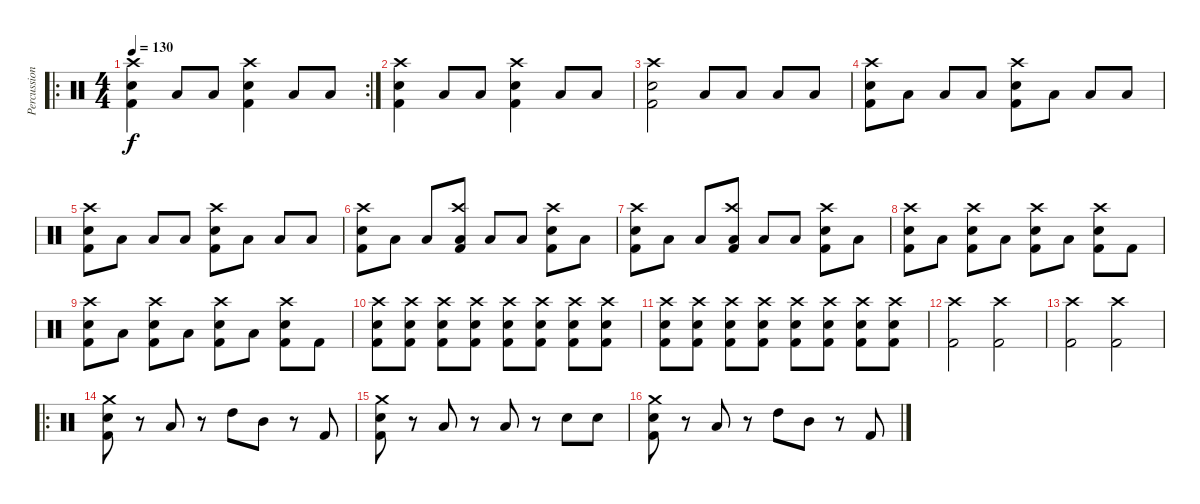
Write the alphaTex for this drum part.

\track ("Percussions" "Percussion") {instrument percussion}
\staff {score}
\articulation defaults
\ro
\rc 2
\ts (4 4)
\tempo 130
\clef neutral
\ks c
("Electric Snare (hit)" "Kick (hit) 2" "Crash high (hit)").4{dy f} "Low Tom (hit)".8 "Low Tom (hit)".8 ("Crash high (hit)" "Kick (hit) 2" "Electric Snare (hit)").4 "Low Tom (hit)".8 "Low Tom (hit)".8 |
("Electric Snare (hit)" "Kick (hit) 2" "Crash high (hit)").4 "Low Tom (hit)".8 "Low Tom (hit)".8 ("Electric Snare (hit)" "Kick (hit) 2" "Crash high (hit)").4 "Low Tom (hit)".8 "Low Tom (hit)".8 |
("Electric Snare (hit)" "Kick (hit) 2" "Crash high (hit)").2 "Low Tom (hit)".8 "Low Tom (hit)".8 "Low Tom (hit)".8 "Low Tom (hit)".8 |
("Electric Snare (hit)" "Kick (hit) 2" "Crash high (hit)").8 "Low Tom (hit)".8 "Low Tom (hit)".8 "Low Tom (hit)".8 ("Crash high (hit)" "Kick (hit) 2" "Electric Snare (hit)").8 "Low Tom (hit)".8 "Low Tom (hit)".8 "Low Tom (hit)".8 |
("Electric Snare (hit)" "Kick (hit) 2" "Crash high (hit)").8 "Low Tom (hit)".8 "Low Tom (hit)".8 "Low Tom (hit)".8 ("Crash high (hit)" "Kick (hit) 2" "Electric Snare (hit)").8 "Low Tom (hit)".8 "Low Tom (hit)".8 "Low Tom (hit)".8 |
("Electric Snare (hit)" "Kick (hit) 2" "Crash high (hit)").8 "Low Tom (hit)".8 "Low Tom (hit)".8 ("Crash high (hit)" "Kick (hit) 2" "Low Tom (hit)").8 "Low Tom (hit)".8 "Low Tom (hit)".8 ("Kick (hit) 2" "Electric Snare (hit)" "Crash high (hit)").8 "Low Tom (hit)".8 |
("Electric Snare (hit)" "Kick (hit) 2" "Crash high (hit)").8 "Low Tom (hit)".8 "Low Tom (hit)".8 ("Crash high (hit)" "Kick (hit) 2" "Low Tom (hit)").8 "Low Tom (hit)".8 "Low Tom (hit)".8 ("Kick (hit) 2" "Electric Snare (hit)" "Crash high (hit)").8 "Low Tom (hit)".8 |
("Crash high (hit)" "Electric Snare (hit)" "Kick (hit) 2").8 "Low Tom (hit)".8 ("Crash high (hit)" "Electric Snare (hit)" "Kick (hit) 2").8 "Low Tom (hit)".8 ("Crash high (hit)" "Electric Snare (hit)" "Kick (hit) 2").8 "Low Tom (hit)".8 ("Crash high (hit)" "Electric Snare (hit)" "Kick (hit) 2").8 "Kick (hit) 2".8 |
("Crash high (hit)" "Electric Snare (hit)" "Kick (hit) 2").8 "Low Tom (hit)".8 ("Crash high (hit)" "Electric Snare (hit)" "Kick (hit) 2").8 "Low Tom (hit)".8 ("Crash high (hit)" "Electric Snare (hit)" "Kick (hit) 2").8 "Low Tom (hit)".8 ("Crash high (hit)" "Electric Snare (hit)" "Kick (hit) 2").8 "Kick (hit) 2".8 |
("Crash high (hit)" "Kick (hit) 2" "Electric Snare (hit)").8 ("Crash high (hit)" "Kick (hit) 2" "Electric Snare (hit)").8 ("Crash high (hit)" "Kick (hit) 2" "Electric Snare (hit)").8 ("Crash high (hit)" "Kick (hit) 2" "Electric Snare (hit)").8 ("Crash high (hit)" "Kick (hit) 2" "Electric Snare (hit)").8 ("Crash high (hit)" "Kick (hit) 2" "Electric Snare (hit)").8 ("Crash high (hit)" "Kick (hit) 2" "Electric Snare (hit)").8 ("Crash high (hit)" "Kick (hit) 2" "Electric Snare (hit)").8 |
("Crash high (hit)" "Kick (hit) 2" "Electric Snare (hit)").8 ("Crash high (hit)" "Kick (hit) 2" "Electric Snare (hit)").8 ("Crash high (hit)" "Kick (hit) 2" "Electric Snare (hit)").8 ("Crash high (hit)" "Kick (hit) 2" "Electric Snare (hit)").8 ("Crash high (hit)" "Kick (hit) 2" "Electric Snare (hit)").8 ("Crash high (hit)" "Kick (hit) 2" "Electric Snare (hit)").8 ("Crash high (hit)" "Kick (hit) 2" "Electric Snare (hit)").8 ("Crash high (hit)" "Kick (hit) 2" "Electric Snare (hit)").8 |
("Crash high (hit)" "Kick (hit) 2").2 ("Kick (hit) 2" "Crash high (hit)").2 |
("Kick (hit) 2" "Crash high (hit)").2 ("Kick (hit) 2" "Crash high (hit)").2 |
\ro
("Kick (hit) 2" "Crash medium (hit)" "Electric Snare (hit)").8 r.8 "Low Tom (hit)".8 r.8 "High Tom (hit)".8 "Mid Tom (hit)".8 r.8 "Kick (hit) 2".8 |
("Kick (hit) 2" "Crash medium (hit)" "Electric Snare (hit)").8 r.8 "Low Tom (hit)".8 r.8 "Low Tom (hit)".8 r.8 "Electric Snare (hit)".8 "Electric Snare (hit)".8 |
("Kick (hit) 2" "Crash medium (hit)" "Electric Snare (hit)").8 r.8 "Low Tom (hit)".8 r.8 "High Tom (hit)".8 "Mid Tom (hit)".8 r.8 "Kick (hit) 2".8
